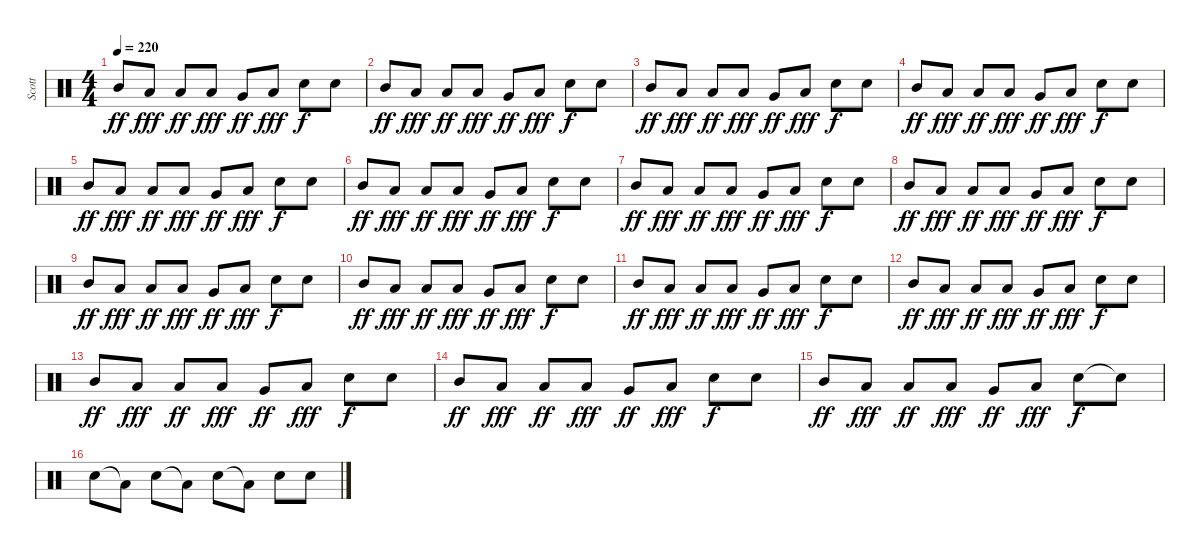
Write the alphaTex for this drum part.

\track ("Scott" "Scott") {instrument percussion}
\staff {score}
\articulation defaults
\ts (4 4)
\tempo 220
\clef neutral
\ks c "Mid Tom (hit)".8{dy ff} "Low Floor Tom (hit)".8{dy fff} "Low Tom (hit)".8{dy ff} "Low Floor Tom (hit)".8{dy fff} "Very Low Tom (hit)".8{dy ff} "Low Floor Tom (hit)".8{dy fff} "Snare (hit) 2".8{dy f} "Snare (hit) 2".8
|
"Mid Tom (hit)".8{dy ff} "Low Floor Tom (hit)".8{dy fff} "Low Tom (hit)".8{dy ff} "Low Floor Tom (hit)".8{dy fff} "Very Low Tom (hit)".8{dy ff} "Low Floor Tom (hit)".8{dy fff} "Snare (hit) 2".8{dy f} "Snare (hit) 2".8 |
"Mid Tom (hit)".8{dy ff} "Low Floor Tom (hit)".8{dy fff} "Low Tom (hit)".8{dy ff} "Low Floor Tom (hit)".8{dy fff} "Very Low Tom (hit)".8{dy ff} "Low Floor Tom (hit)".8{dy fff} "Snare (hit) 2".8{dy f} "Snare (hit) 2".8 |
"Mid Tom (hit)".8{dy ff} "Low Floor Tom (hit)".8{dy fff} "Low Tom (hit)".8{dy ff} "Low Floor Tom (hit)".8{dy fff} "Very Low Tom (hit)".8{dy ff} "Low Floor Tom (hit)".8{dy fff} "Snare (hit) 2".8{dy f} "Snare (hit) 2".8 |
"Mid Tom (hit)".8{dy ff} "Low Floor Tom (hit)".8{dy fff} "Low Tom (hit)".8{dy ff} "Low Floor Tom (hit)".8{dy fff} "Very Low Tom (hit)".8{dy ff} "Low Floor Tom (hit)".8{dy fff} "Snare (hit) 2".8{dy f} "Snare (hit) 2".8 |
"Mid Tom (hit)".8{dy ff} "Low Floor Tom (hit)".8{dy fff} "Low Tom (hit)".8{dy ff} "Low Floor Tom (hit)".8{dy fff} "Very Low Tom (hit)".8{dy ff} "Low Floor Tom (hit)".8{dy fff} "Snare (hit) 2".8{dy f} "Snare (hit) 2".8 |
"Mid Tom (hit)".8{dy ff} "Low Floor Tom (hit)".8{dy fff} "Low Tom (hit)".8{dy ff} "Low Floor Tom (hit)".8{dy fff} "Very Low Tom (hit)".8{dy ff} "Low Floor Tom (hit)".8{dy fff} "Snare (hit) 2".8{dy f} "Snare (hit) 2".8 |
"Mid Tom (hit)".8{dy ff} "Low Floor Tom (hit)".8{dy fff} "Low Tom (hit)".8{dy ff} "Low Floor Tom (hit)".8{dy fff} "Very Low Tom (hit)".8{dy ff} "Low Floor Tom (hit)".8{dy fff} "Snare (hit) 2".8{dy f} "Snare (hit) 2".8 |
"Mid Tom (hit)".8{dy ff} "Low Floor Tom (hit)".8{dy fff} "Low Tom (hit)".8{dy ff} "Low Floor Tom (hit)".8{dy fff} "Very Low Tom (hit)".8{dy ff} "Low Floor Tom (hit)".8{dy fff} "Snare (hit) 2".8{dy f} "Snare (hit) 2".8 |
"Mid Tom (hit)".8{dy ff} "Low Floor Tom (hit)".8{dy fff} "Low Tom (hit)".8{dy ff} "Low Floor Tom (hit)".8{dy fff} "Very Low Tom (hit)".8{dy ff} "Low Floor Tom (hit)".8{dy fff} "Snare (hit) 2".8{dy f} "Snare (hit) 2".8 |
"Mid Tom (hit)".8{dy ff} "Low Floor Tom (hit)".8{dy fff} "Low Tom (hit)".8{dy ff} "Low Floor Tom (hit)".8{dy fff} "Very Low Tom (hit)".8{dy ff} "Low Floor Tom (hit)".8{dy fff} "Snare (hit) 2".8{dy f} "Snare (hit) 2".8 |
"Mid Tom (hit)".8{dy ff} "Low Floor Tom (hit)".8{dy fff} "Low Tom (hit)".8{dy ff} "Low Floor Tom (hit)".8{dy fff} "Very Low Tom (hit)".8{dy ff} "Low Floor Tom (hit)".8{dy fff} "Snare (hit) 2".8{dy f} "Snare (hit) 2".8 |
"Mid Tom (hit)".8{dy ff} "Low Floor Tom (hit)".8{dy fff} "Low Tom (hit)".8{dy ff} "Low Floor Tom (hit)".8{dy fff} "Very Low Tom (hit)".8{dy ff} "Low Floor Tom (hit)".8{dy fff} "Snare (hit) 2".8{dy f} "Snare (hit) 2".8 |
"Mid Tom (hit)".8{dy ff} "Low Floor Tom (hit)".8{dy fff} "Low Tom (hit)".8{dy ff} "Low Floor Tom (hit)".8{dy fff} "Very Low Tom (hit)".8{dy ff} "Low Floor Tom (hit)".8{dy fff} "Snare (hit) 2".8{dy f} "Snare (hit) 2".8 |
"Mid Tom (hit)".8{dy ff} "Low Floor Tom (hit)".8{dy fff} "Low Tom (hit)".8{dy ff} "Low Floor Tom (hit)".8{dy fff} "Very Low Tom (hit)".8{dy ff} "Low Floor Tom (hit)".8{dy fff} "Snare (hit) 2".8{dy f} "Snare (hit) 2"{t}.8 |
"Snare (hit) 2".8 "Low Floor Tom (hit)"{t}.8 "Snare (hit) 2".8 "Low Floor Tom (hit)"{t}.8 "Snare (hit) 2".8 "Low Floor Tom (hit)"{t}.8 "Snare (hit) 2".8 "Snare (hit) 2".8
